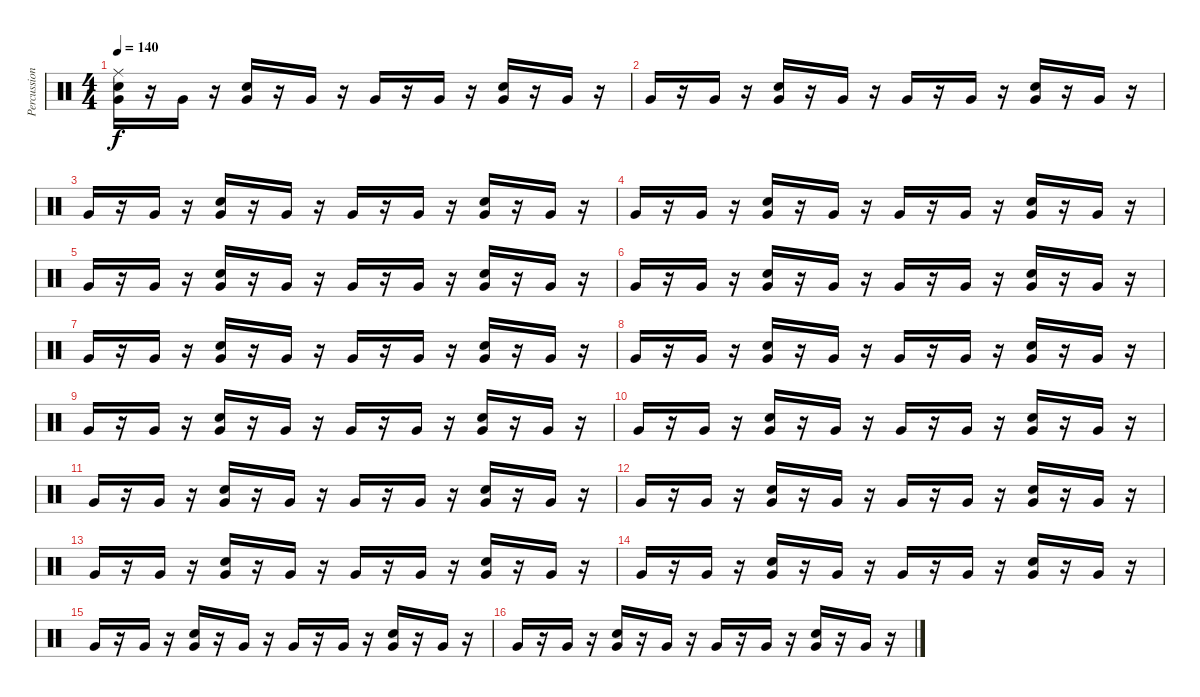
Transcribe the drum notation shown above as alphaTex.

\track ("Percussions" "Percussion") {instrument percussion}
\staff {score}
\articulation defaults
\ts (4 4)
\tempo 140
\clef neutral
\ks c
("Very Low Tom (hit)" "Electric Snare (hit)" "Ride (middle)").16{dy f} r.16 "Very Low Tom (hit)".16 r.16 ("Very Low Tom (hit)" "Electric Snare (hit)").16 r.16 "Very Low Tom (hit)".16 r.16 "Very Low Tom (hit)".16 r.16 "Very Low Tom (hit)".16 r.16 ("Very Low Tom (hit)" "Electric Snare (hit)").16 r.16 "Very Low Tom (hit)".16 r.16 |
"Very Low Tom (hit)".16 r.16 "Very Low Tom (hit)".16 r.16 ("Very Low Tom (hit)" "Electric Snare (hit)").16 r.16 "Very Low Tom (hit)".16 r.16 "Very Low Tom (hit)".16 r.16 "Very Low Tom (hit)".16 r.16 ("Very Low Tom (hit)" "Electric Snare (hit)").16 r.16 "Very Low Tom (hit)".16 r.16 |
"Very Low Tom (hit)".16 r.16 "Very Low Tom (hit)".16 r.16 ("Very Low Tom (hit)" "Electric Snare (hit)").16 r.16 "Very Low Tom (hit)".16 r.16 "Very Low Tom (hit)".16 r.16 "Very Low Tom (hit)".16 r.16 ("Very Low Tom (hit)" "Electric Snare (hit)").16 r.16 "Very Low Tom (hit)".16 r.16 |
"Very Low Tom (hit)".16 r.16 "Very Low Tom (hit)".16 r.16 ("Very Low Tom (hit)" "Electric Snare (hit)").16 r.16 "Very Low Tom (hit)".16 r.16 "Very Low Tom (hit)".16 r.16 "Very Low Tom (hit)".16 r.16 ("Very Low Tom (hit)" "Electric Snare (hit)").16 r.16 "Very Low Tom (hit)".16 r.16 |
"Very Low Tom (hit)".16 r.16 "Very Low Tom (hit)".16 r.16 ("Very Low Tom (hit)" "Electric Snare (hit)").16 r.16 "Very Low Tom (hit)".16 r.16 "Very Low Tom (hit)".16 r.16 "Very Low Tom (hit)".16 r.16 ("Very Low Tom (hit)" "Electric Snare (hit)").16 r.16 "Very Low Tom (hit)".16 r.16 |
"Very Low Tom (hit)".16 r.16 "Very Low Tom (hit)".16 r.16 ("Very Low Tom (hit)" "Electric Snare (hit)").16 r.16 "Very Low Tom (hit)".16 r.16 "Very Low Tom (hit)".16 r.16 "Very Low Tom (hit)".16 r.16 ("Very Low Tom (hit)" "Electric Snare (hit)").16 r.16 "Very Low Tom (hit)".16 r.16 |
"Very Low Tom (hit)".16 r.16 "Very Low Tom (hit)".16 r.16 ("Very Low Tom (hit)" "Electric Snare (hit)").16 r.16 "Very Low Tom (hit)".16 r.16 "Very Low Tom (hit)".16 r.16 "Very Low Tom (hit)".16 r.16 ("Very Low Tom (hit)" "Electric Snare (hit)").16 r.16 "Very Low Tom (hit)".16 r.16 |
"Very Low Tom (hit)".16 r.16 "Very Low Tom (hit)".16 r.16 ("Very Low Tom (hit)" "Electric Snare (hit)").16 r.16 "Very Low Tom (hit)".16 r.16 "Very Low Tom (hit)".16 r.16 "Very Low Tom (hit)".16 r.16 ("Very Low Tom (hit)" "Electric Snare (hit)").16 r.16 "Very Low Tom (hit)".16 r.16 |
"Very Low Tom (hit)".16 r.16 "Very Low Tom (hit)".16 r.16 ("Very Low Tom (hit)" "Electric Snare (hit)").16 r.16 "Very Low Tom (hit)".16 r.16 "Very Low Tom (hit)".16 r.16 "Very Low Tom (hit)".16 r.16 ("Very Low Tom (hit)" "Electric Snare (hit)").16 r.16 "Very Low Tom (hit)".16 r.16 |
"Very Low Tom (hit)".16 r.16 "Very Low Tom (hit)".16 r.16 ("Very Low Tom (hit)" "Electric Snare (hit)").16 r.16 "Very Low Tom (hit)".16 r.16 "Very Low Tom (hit)".16 r.16 "Very Low Tom (hit)".16 r.16 ("Very Low Tom (hit)" "Electric Snare (hit)").16 r.16 "Very Low Tom (hit)".16 r.16 |
"Very Low Tom (hit)".16 r.16 "Very Low Tom (hit)".16 r.16 ("Very Low Tom (hit)" "Electric Snare (hit)").16 r.16 "Very Low Tom (hit)".16 r.16 "Very Low Tom (hit)".16 r.16 "Very Low Tom (hit)".16 r.16 ("Very Low Tom (hit)" "Electric Snare (hit)").16 r.16 "Very Low Tom (hit)".16 r.16 |
"Very Low Tom (hit)".16 r.16 "Very Low Tom (hit)".16 r.16 ("Very Low Tom (hit)" "Electric Snare (hit)").16 r.16 "Very Low Tom (hit)".16 r.16 "Very Low Tom (hit)".16 r.16 "Very Low Tom (hit)".16 r.16 ("Very Low Tom (hit)" "Electric Snare (hit)").16 r.16 "Very Low Tom (hit)".16 r.16 |
"Very Low Tom (hit)".16 r.16 "Very Low Tom (hit)".16 r.16 ("Very Low Tom (hit)" "Electric Snare (hit)").16 r.16 "Very Low Tom (hit)".16 r.16 "Very Low Tom (hit)".16 r.16 "Very Low Tom (hit)".16 r.16 ("Very Low Tom (hit)" "Electric Snare (hit)").16 r.16 "Very Low Tom (hit)".16 r.16 |
"Very Low Tom (hit)".16 r.16 "Very Low Tom (hit)".16 r.16 ("Very Low Tom (hit)" "Electric Snare (hit)").16 r.16 "Very Low Tom (hit)".16 r.16 "Very Low Tom (hit)".16 r.16 "Very Low Tom (hit)".16 r.16 ("Very Low Tom (hit)" "Electric Snare (hit)").16 r.16 "Very Low Tom (hit)".16 r.16 |
"Very Low Tom (hit)".16 r.16 "Very Low Tom (hit)".16 r.16 ("Very Low Tom (hit)" "Electric Snare (hit)").16 r.16 "Very Low Tom (hit)".16 r.16 "Very Low Tom (hit)".16 r.16 "Very Low Tom (hit)".16 r.16 ("Very Low Tom (hit)" "Electric Snare (hit)").16 r.16 "Very Low Tom (hit)".16 r.16 |
"Very Low Tom (hit)".16 r.16 "Very Low Tom (hit)".16 r.16 ("Very Low Tom (hit)" "Electric Snare (hit)").16 r.16 "Very Low Tom (hit)".16 r.16 "Very Low Tom (hit)".16 r.16 "Very Low Tom (hit)".16 r.16 ("Very Low Tom (hit)" "Electric Snare (hit)").16 r.16 "Very Low Tom (hit)".16 r.16
